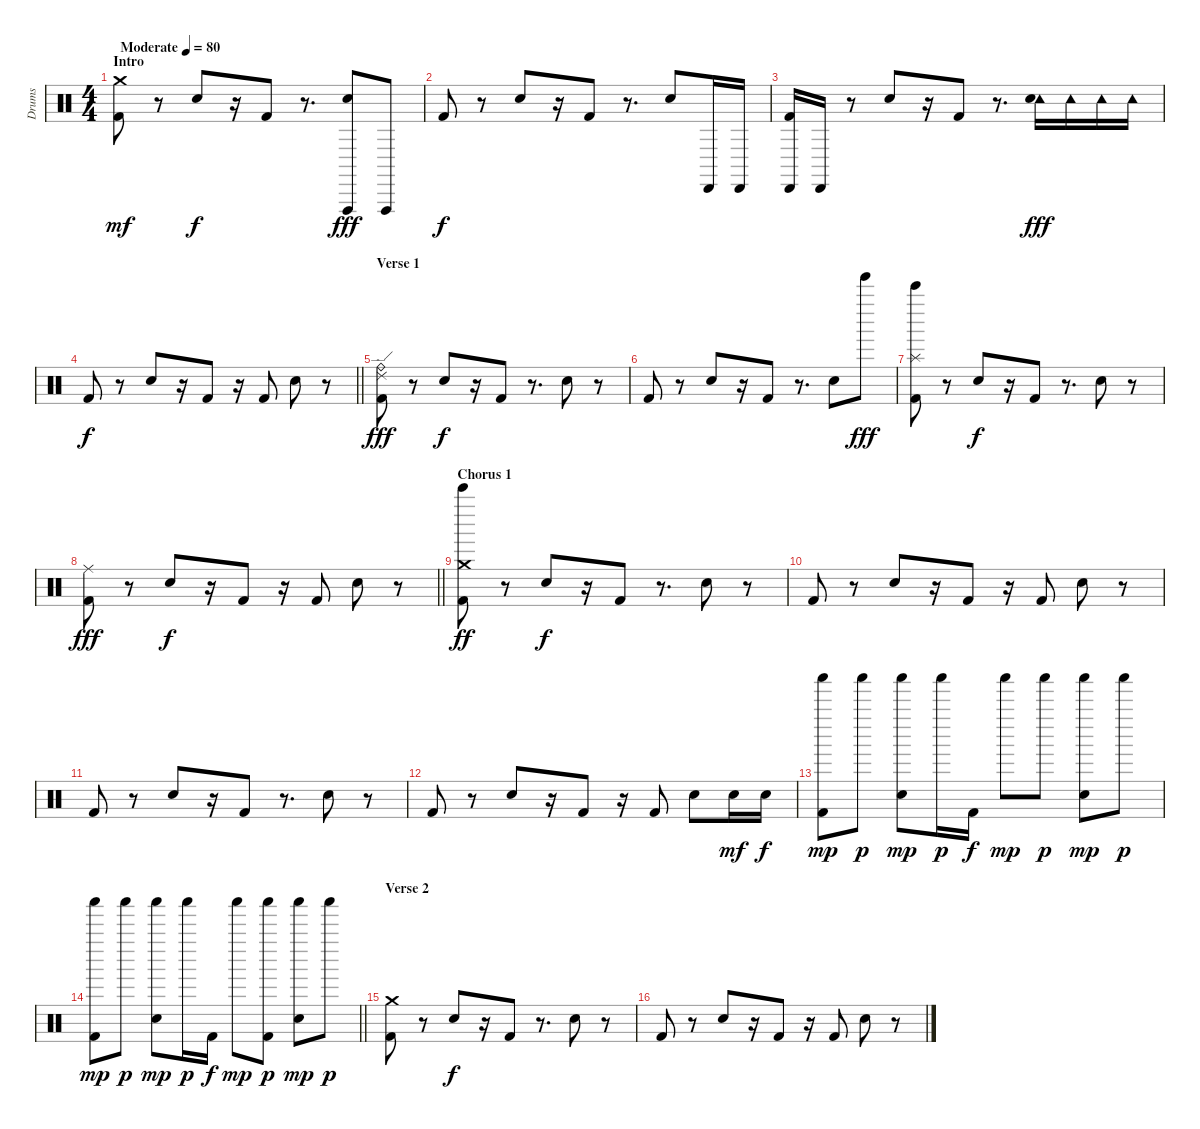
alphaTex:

\track ("Drums" "Drums") {instrument percussion}
\staff {score}
\articulation defaults
\ts (4 4)
\section ("" "Intro")
\tempo (80 "Moderate")
\clef neutral
\ks c
("Crash medium (hit)" "Kick (hit) 2").8{dy mf} r.8 "Snare (hit) 2".8{dy f} r.16 "Kick (hit) 2".8 r.8{d} ("Vibraslap (hit)" "Snare (hit) 2").8{dy fff} "Vibraslap (hit)".8 |
"Kick (hit) 2".8{dy f} r.8 "Snare (hit) 2".8 r.16 "Kick (hit) 2".8 r.8{d} "Snare (hit) 2".8 "Cabasa (hit)".16 "Cabasa (hit)".16 |
("Cabasa (hit)" "Kick (hit) 2").16 "Cabasa (hit)".16 r.8 "Snare (hit) 2".8 r.16 "Kick (hit) 2".8 r.8{d} ("Tambourine (hit)" "Snare (hit) 2").16{dy fff} "Tambourine (hit)".16 "Tambourine (hit)".16 "Tambourine (hit)".16 |
\barLineRight lightlight "Kick (hit) 2".8{dy f}
r.8 "Snare (hit) 2".8 r.16 "Kick (hit) 2".8 r.16 "Kick (hit) 2".8 "Snare (hit) 2".8 r.8 |
\section ("" "Verse 1")
("Ride (edge) 2" "Ride (bell)" "Kick (hit) 2").8{dy fff} r.8 "Snare (hit) 2".8{dy f} r.16 "Kick (hit) 2".8 r.8{d} "Snare (hit) 2".8 r.8 |
"Kick (hit) 2".8 r.8 "Snare (hit) 2".8 r.16 "Kick (hit) 2".8 r.8{d} "Snare (hit) 2".8 "Tinkle Bell (hit)".8{dy fff} |
("Kick (hit) 2" "Splash (hit)" "Bell Tree (hit)").8 r.8 "Snare (hit) 2".8{dy f} r.16 "Kick (hit) 2".8 r.8{d} "Snare (hit) 2".8 r.8 |
\barLineRight lightlight
("Ride (middle)" "Kick (hit) 2").8{dy fff} r.8 "Snare (hit) 2".8{dy f} r.16 "Kick (hit) 2".8 r.16 "Kick (hit) 2".8 "Snare (hit) 2".8 r.8 |
\section ("" "Chorus 1")
("Kick (hit) 2" "Bell Tree (hit)" "Crash medium (hit)").8{dy ff} r.8 "Snare (hit) 2".8{dy f} r.16 "Kick (hit) 2".8 r.8{d} "Snare (hit) 2".8 r.8 |
"Kick (hit) 2".8 r.8 "Snare (hit) 2".8 r.16 "Kick (hit) 2".8 r.16 "Kick (hit) 2".8 "Snare (hit) 2".8 r.8 |
"Kick (hit) 2".8 r.8 "Snare (hit) 2".8 r.16 "Kick (hit) 2".8 r.8{d} "Snare (hit) 2".8 r.8 |
"Kick (hit) 2".8 r.8 "Snare (hit) 2".8 r.16 "Kick (hit) 2".8 r.16 "Kick (hit) 2".8 "Snare (hit) 2".8 "Snare (hit) 2".16{dy mf} "Snare (hit) 2".16{dy f} |
("Shaker (hit)" "Kick (hit) 2").8{dy mp} "Shaker (hit)".8{dy p} ("Snare (hit) 2" "Shaker (hit)").8{dy mp} "Shaker (hit)".16{dy p} "Kick (hit) 2".16{dy f} "Shaker (hit)".8{dy mp} "Shaker (hit)".8{dy p} ("Shaker (hit)" "Snare (hit) 2").8{dy mp} "Shaker (hit)".8{dy p} |
\barLineRight lightlight
("Shaker (hit)" "Kick (hit) 2").8{dy mp} "Shaker (hit)".8{dy p} ("Snare (hit) 2" "Shaker (hit)").8{dy mp} "Shaker (hit)".16{dy p} "Kick (hit) 2".16{dy f} "Shaker (hit)".8{dy mp} ("Kick (hit) 2" "Shaker (hit)").8{dy p} ("Snare (hit) 2" "Shaker (hit)").8{dy mp} "Shaker (hit)".8{dy p} |
\section ("" "Verse 2")
("Crash medium (hit)" "Kick (hit) 2").8 r.8 "Snare (hit) 2".8{dy f} r.16 "Kick (hit) 2".8 r.8{d} "Snare (hit) 2".8 r.8 |
"Kick (hit) 2".8 r.8 "Snare (hit) 2".8 r.16 "Kick (hit) 2".8 r.16 "Kick (hit) 2".8 "Snare (hit) 2".8 r.8
